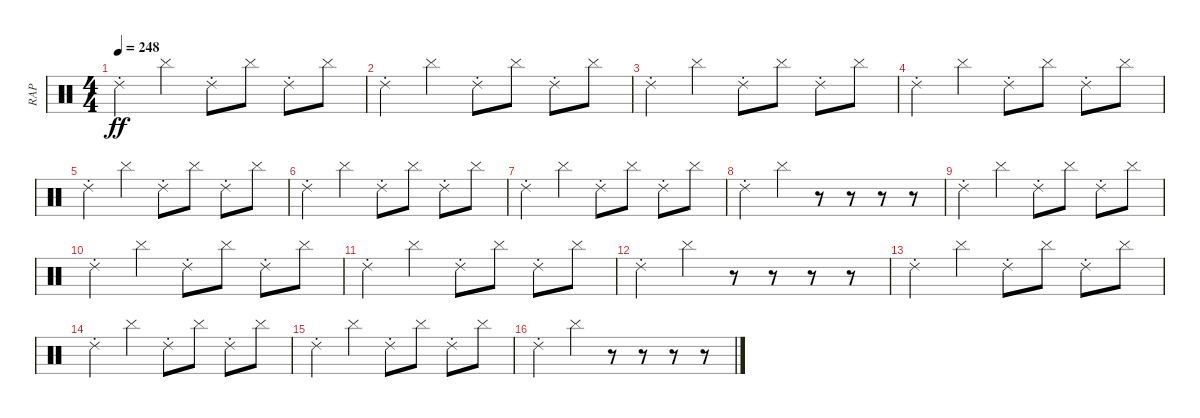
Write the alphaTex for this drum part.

\track ("RAP" "RAP") {instrument percussion}
\staff {score}
\articulation defaults
\ts (4 4)
\tempo 248
\clef neutral
\ks c "Ride (choke) 2".4{dy ff} "Cymbal (hit)".4 "Ride (choke) 2".8 "Cymbal (hit)".8 "Ride (choke) 2".8 "Cymbal (hit)".8
|
"Ride (choke) 2".4 "Cymbal (hit)".4 "Ride (choke) 2".8 "Cymbal (hit)".8 "Ride (choke) 2".8 "Cymbal (hit)".8 |
"Ride (choke) 2".4 "Cymbal (hit)".4 "Ride (choke) 2".8 "Cymbal (hit)".8 "Ride (choke) 2".8 "Cymbal (hit)".8 |
"Ride (choke) 2".4 "Cymbal (hit)".4 "Ride (choke) 2".8 "Cymbal (hit)".8 "Ride (choke) 2".8 "Cymbal (hit)".8 |
"Ride (choke) 2".4 "Cymbal (hit)".4 "Ride (choke) 2".8 "Cymbal (hit)".8 "Ride (choke) 2".8 "Cymbal (hit)".8 |
"Ride (choke) 2".4 "Cymbal (hit)".4 "Ride (choke) 2".8 "Cymbal (hit)".8 "Ride (choke) 2".8 "Cymbal (hit)".8 |
"Ride (choke) 2".4 "Cymbal (hit)".4 "Ride (choke) 2".8 "Cymbal (hit)".8 "Ride (choke) 2".8 "Cymbal (hit)".8 |
"Ride (choke) 2".4 "Cymbal (hit)".4 r.8 r.8 r.8 r.8 |
"Ride (choke) 2".4 "Cymbal (hit)".4 "Ride (choke) 2".8 "Cymbal (hit)".8 "Ride (choke) 2".8 "Cymbal (hit)".8 |
"Ride (choke) 2".4 "Cymbal (hit)".4 "Ride (choke) 2".8 "Cymbal (hit)".8 "Ride (choke) 2".8 "Cymbal (hit)".8 |
"Ride (choke) 2".4 "Cymbal (hit)".4 "Ride (choke) 2".8 "Cymbal (hit)".8 "Ride (choke) 2".8 "Cymbal (hit)".8 |
"Ride (choke) 2".4 "Cymbal (hit)".4 r.8 r.8 r.8 r.8 |
"Ride (choke) 2".4 "Cymbal (hit)".4 "Ride (choke) 2".8 "Cymbal (hit)".8 "Ride (choke) 2".8 "Cymbal (hit)".8 |
"Ride (choke) 2".4 "Cymbal (hit)".4 "Ride (choke) 2".8 "Cymbal (hit)".8 "Ride (choke) 2".8 "Cymbal (hit)".8 |
"Ride (choke) 2".4 "Cymbal (hit)".4 "Ride (choke) 2".8 "Cymbal (hit)".8 "Ride (choke) 2".8 "Cymbal (hit)".8 |
"Ride (choke) 2".4 "Cymbal (hit)".4 r.8 r.8 r.8 r.8
